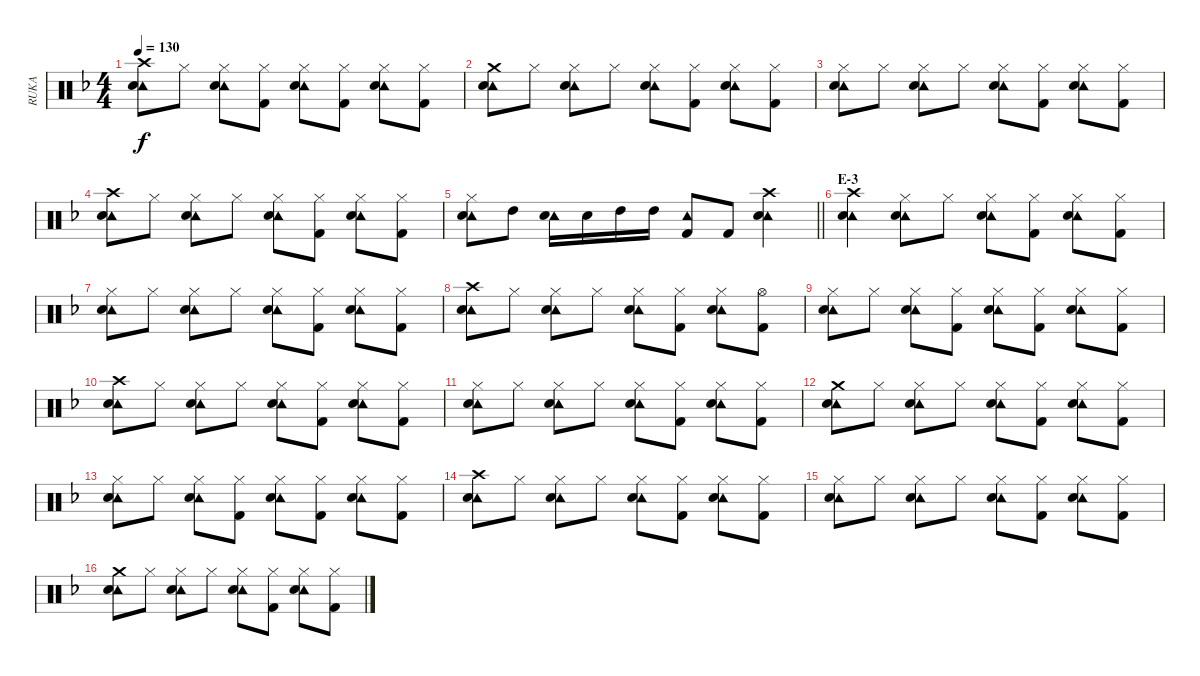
\track ("RUKA" "RUKA") {instrument percussion}
\staff {score}
\articulation defaults
\ts (4 4)
\tempo 130
\clef neutral
\ks f
("Crash high (hit)" "Tambourine (hit)" "Snare (hit) 2").8{dy f} "Hi-Hat (closed)".8 ("Hi-Hat (closed)" "Tambourine (hit)" "Snare (hit) 2").8 ("Hi-Hat (closed)" "Kick (hit) 2").8 ("Hi-Hat (closed)" "Tambourine (hit)" "Snare (hit) 2").8 ("Hi-Hat (closed)" "Kick (hit) 2").8 ("Hi-Hat (closed)" "Tambourine (hit)" "Snare (hit) 2").8 ("Hi-Hat (closed)" "Kick (hit) 2").8 |
("Crash medium (hit)" "Tambourine (hit)" "Snare (hit) 2").8 "Hi-Hat (closed)".8 ("Hi-Hat (closed)" "Tambourine (hit)" "Snare (hit) 2").8 "Hi-Hat (closed)".8 ("Hi-Hat (closed)" "Tambourine (hit)" "Snare (hit) 2").8 ("Hi-Hat (closed)" "Kick (hit) 2").8 ("Hi-Hat (closed)" "Tambourine (hit)" "Snare (hit) 2").8 ("Hi-Hat (closed)" "Kick (hit) 2").8 |
("Hi-Hat (closed)" "Tambourine (hit)" "Snare (hit) 2").8 "Hi-Hat (closed)".8 ("Hi-Hat (closed)" "Tambourine (hit)" "Snare (hit) 2").8 "Hi-Hat (closed)".8 ("Hi-Hat (closed)" "Tambourine (hit)" "Snare (hit) 2").8 ("Hi-Hat (closed)" "Kick (hit) 2").8 ("Hi-Hat (closed)" "Tambourine (hit)" "Snare (hit) 2").8 ("Hi-Hat (closed)" "Kick (hit) 2").8 |
("Crash high (hit)" "Tambourine (hit)" "Snare (hit) 2").8 "Hi-Hat (closed)".8 ("Hi-Hat (closed)" "Tambourine (hit)" "Snare (hit) 2").8 "Hi-Hat (closed)".8 ("Hi-Hat (closed)" "Tambourine (hit)" "Snare (hit) 2").8 ("Hi-Hat (closed)" "Kick (hit) 2").8 ("Hi-Hat (closed)" "Tambourine (hit)" "Snare (hit) 2").8 ("Hi-Hat (closed)" "Kick (hit) 2").8 |
\barLineRight lightlight
("Hi-Hat (closed)" "Tambourine (hit)" "Snare (hit) 2").8 "High Tom (hit)".8 ("Tambourine (hit)" "Snare (hit) 2").16 "Snare (hit) 2".16 "High Tom (hit)".16 "High Tom (hit)".16 ("Tambourine (hit)" "Kick (hit) 2").8 "Kick (hit) 2".8 ("Crash high (hit)" "Tambourine (hit)" "Snare (hit) 2").4 |
\section ("" "E-3")
("Crash high (hit)" "Tambourine (hit)" "Snare (hit) 2").4 ("Hi-Hat (closed)" "Tambourine (hit)" "Snare (hit) 2").8 "Hi-Hat (closed)".8 ("Hi-Hat (closed)" "Tambourine (hit)" "Snare (hit) 2").8 ("Hi-Hat (closed)" "Kick (hit) 2").8 ("Hi-Hat (closed)" "Tambourine (hit)" "Snare (hit) 2").8 ("Hi-Hat (closed)" "Kick (hit) 2").8 |
("Hi-Hat (closed)" "Tambourine (hit)" "Snare (hit) 2").8 "Hi-Hat (closed)".8 ("Hi-Hat (closed)" "Tambourine (hit)" "Snare (hit) 2").8 "Hi-Hat (closed)".8 ("Hi-Hat (closed)" "Tambourine (hit)" "Snare (hit) 2").8 ("Hi-Hat (closed)" "Kick (hit) 2").8 ("Hi-Hat (closed)" "Tambourine (hit)" "Snare (hit) 2").8 ("Hi-Hat (closed)" "Kick (hit) 2").8 |
("Crash high (hit)" "Tambourine (hit)" "Snare (hit) 2").8 "Hi-Hat (closed)".8 ("Hi-Hat (closed)" "Tambourine (hit)" "Snare (hit) 2").8 "Hi-Hat (closed)".8 ("Hi-Hat (closed)" "Tambourine (hit)" "Snare (hit) 2").8 ("Hi-Hat (closed)" "Kick (hit) 2").8 ("Hi-Hat (closed)" "Tambourine (hit)" "Snare (hit) 2").8 ("Hi-Hat (open)" "Kick (hit) 2").8 |
("Hi-Hat (closed)" "Tambourine (hit)" "Snare (hit) 2").8 "Hi-Hat (closed)".8 ("Hi-Hat (closed)" "Tambourine (hit)" "Snare (hit) 2").8 ("Hi-Hat (closed)" "Kick (hit) 2").8 ("Hi-Hat (closed)" "Tambourine (hit)" "Snare (hit) 2").8 ("Hi-Hat (closed)" "Kick (hit) 2").8 ("Hi-Hat (closed)" "Tambourine (hit)" "Snare (hit) 2").8 ("Hi-Hat (closed)" "Kick (hit) 2").8 |
("Crash high (hit)" "Tambourine (hit)" "Snare (hit) 2").8 "Hi-Hat (closed)".8 ("Hi-Hat (closed)" "Tambourine (hit)" "Snare (hit) 2").8 "Hi-Hat (closed)".8 ("Hi-Hat (closed)" "Tambourine (hit)" "Snare (hit) 2").8 ("Hi-Hat (closed)" "Kick (hit) 2").8 ("Hi-Hat (closed)" "Tambourine (hit)" "Snare (hit) 2").8 ("Hi-Hat (closed)" "Kick (hit) 2").8 |
("Hi-Hat (closed)" "Tambourine (hit)" "Snare (hit) 2").8 "Hi-Hat (closed)".8 ("Hi-Hat (closed)" "Tambourine (hit)" "Snare (hit) 2").8 "Hi-Hat (closed)".8 ("Hi-Hat (closed)" "Tambourine (hit)" "Snare (hit) 2").8 ("Hi-Hat (closed)" "Kick (hit) 2").8 ("Hi-Hat (closed)" "Tambourine (hit)" "Snare (hit) 2").8 ("Hi-Hat (closed)" "Kick (hit) 2").8 |
("Crash medium (hit)" "Tambourine (hit)" "Snare (hit) 2").8 "Hi-Hat (closed)".8 ("Hi-Hat (closed)" "Tambourine (hit)" "Snare (hit) 2").8 "Hi-Hat (closed)".8 ("Hi-Hat (closed)" "Tambourine (hit)" "Snare (hit) 2").8 ("Hi-Hat (closed)" "Kick (hit) 2").8 ("Hi-Hat (closed)" "Tambourine (hit)" "Snare (hit) 2").8 ("Hi-Hat (closed)" "Kick (hit) 2").8 |
("Hi-Hat (closed)" "Tambourine (hit)" "Snare (hit) 2").8 "Hi-Hat (closed)".8 ("Hi-Hat (closed)" "Tambourine (hit)" "Snare (hit) 2").8 ("Hi-Hat (closed)" "Kick (hit) 2").8 ("Hi-Hat (closed)" "Tambourine (hit)" "Snare (hit) 2").8 ("Hi-Hat (closed)" "Kick (hit) 2").8 ("Hi-Hat (closed)" "Tambourine (hit)" "Snare (hit) 2").8 ("Hi-Hat (closed)" "Kick (hit) 2").8 |
("Crash high (hit)" "Tambourine (hit)" "Snare (hit) 2").8 "Hi-Hat (closed)".8 ("Hi-Hat (closed)" "Tambourine (hit)" "Snare (hit) 2").8 "Hi-Hat (closed)".8 ("Hi-Hat (closed)" "Tambourine (hit)" "Snare (hit) 2").8 ("Hi-Hat (closed)" "Kick (hit) 2").8 ("Hi-Hat (closed)" "Tambourine (hit)" "Snare (hit) 2").8 ("Hi-Hat (closed)" "Kick (hit) 2").8 |
("Hi-Hat (closed)" "Tambourine (hit)" "Snare (hit) 2").8 "Hi-Hat (closed)".8 ("Hi-Hat (closed)" "Tambourine (hit)" "Snare (hit) 2").8 "Hi-Hat (closed)".8 ("Hi-Hat (closed)" "Tambourine (hit)" "Snare (hit) 2").8 ("Hi-Hat (closed)" "Kick (hit) 2").8 ("Hi-Hat (closed)" "Tambourine (hit)" "Snare (hit) 2").8 ("Hi-Hat (closed)" "Kick (hit) 2").8 |
("Crash medium (hit)" "Tambourine (hit)" "Snare (hit) 2").8 "Hi-Hat (closed)".8 ("Hi-Hat (closed)" "Tambourine (hit)" "Snare (hit) 2").8 "Hi-Hat (closed)".8 ("Hi-Hat (closed)" "Tambourine (hit)" "Snare (hit) 2").8 ("Hi-Hat (closed)" "Kick (hit) 2").8 ("Hi-Hat (closed)" "Tambourine (hit)" "Snare (hit) 2").8 ("Hi-Hat (closed)" "Kick (hit) 2").8
